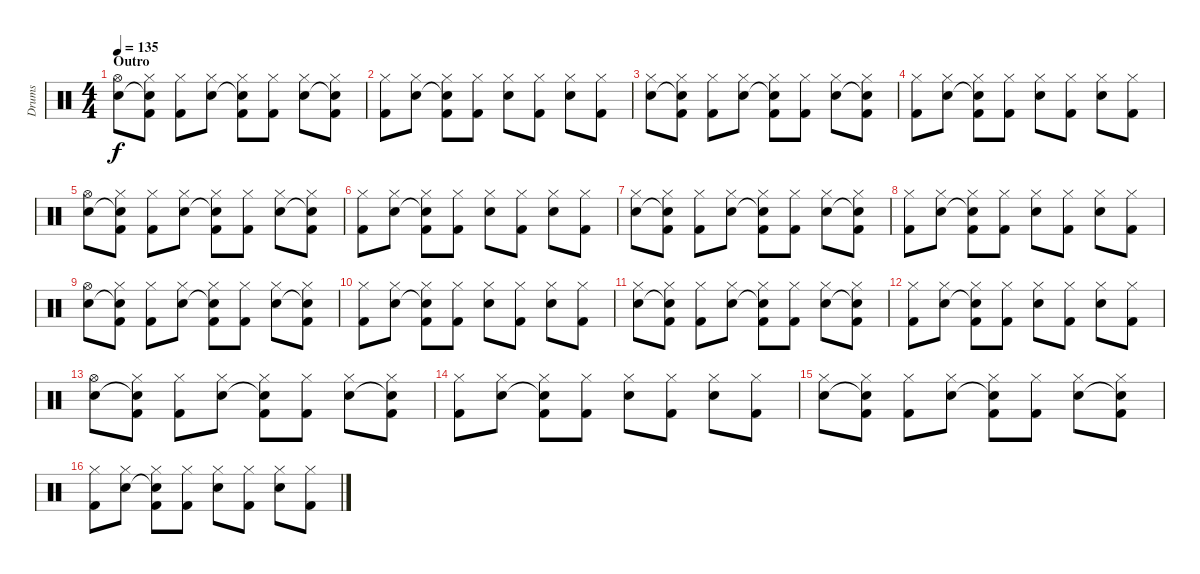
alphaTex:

\track ("Drums" "Drums") {instrument percussion}
\staff {score}
\articulation defaults
\ts (4 4)
\section ("" "Outro")
\tempo 135
\clef neutral
\ks c
("Hi-Hat (open)" "Snare (hit) 2").8{dy f} ("Hi-Hat (closed)" "Snare (hit) 2"{t} "Kick (hit) 2").8 ("Hi-Hat (closed)" "Kick (hit) 2").8 ("Hi-Hat (closed)" "Snare (hit) 2").8 ("Hi-Hat (closed)" "Snare (hit) 2"{t} "Kick (hit) 2").8 ("Hi-Hat (closed)" "Kick (hit) 2").8 ("Hi-Hat (closed)" "Snare (hit) 2").8 ("Hi-Hat (closed)" "Snare (hit) 2"{t} "Kick (hit) 2").8 |
("Hi-Hat (closed)" "Kick (hit) 2").8 ("Hi-Hat (closed)" "Snare (hit) 2").8 ("Hi-Hat (closed)" "Snare (hit) 2"{t} "Kick (hit) 2").8 ("Hi-Hat (closed)" "Kick (hit) 2").8 ("Hi-Hat (closed)" "Snare (hit) 2").8 ("Hi-Hat (closed)" "Kick (hit) 2").8 ("Hi-Hat (closed)" "Snare (hit) 2").8 ("Hi-Hat (closed)" "Kick (hit) 2").8 |
("Hi-Hat (closed)" "Snare (hit) 2").8 ("Hi-Hat (closed)" "Snare (hit) 2"{t} "Kick (hit) 2").8 ("Hi-Hat (closed)" "Kick (hit) 2").8 ("Hi-Hat (closed)" "Snare (hit) 2").8 ("Hi-Hat (closed)" "Snare (hit) 2"{t} "Kick (hit) 2").8 ("Hi-Hat (closed)" "Kick (hit) 2").8 ("Hi-Hat (closed)" "Snare (hit) 2").8 ("Hi-Hat (closed)" "Snare (hit) 2"{t} "Kick (hit) 2").8 |
("Hi-Hat (closed)" "Kick (hit) 2").8 ("Hi-Hat (closed)" "Snare (hit) 2").8 ("Hi-Hat (closed)" "Snare (hit) 2"{t} "Kick (hit) 2").8 ("Hi-Hat (closed)" "Kick (hit) 2").8 ("Hi-Hat (closed)" "Snare (hit) 2").8 ("Hi-Hat (closed)" "Kick (hit) 2").8 ("Hi-Hat (closed)" "Snare (hit) 2").8 ("Hi-Hat (closed)" "Kick (hit) 2").8 |
("Hi-Hat (open)" "Snare (hit) 2").8 ("Hi-Hat (closed)" "Snare (hit) 2"{t} "Kick (hit) 2").8 ("Hi-Hat (closed)" "Kick (hit) 2").8 ("Hi-Hat (closed)" "Snare (hit) 2").8 ("Hi-Hat (closed)" "Snare (hit) 2"{t} "Kick (hit) 2").8 ("Hi-Hat (closed)" "Kick (hit) 2").8 ("Hi-Hat (closed)" "Snare (hit) 2").8 ("Hi-Hat (closed)" "Snare (hit) 2"{t} "Kick (hit) 2").8 |
("Hi-Hat (closed)" "Kick (hit) 2").8 ("Hi-Hat (closed)" "Snare (hit) 2").8 ("Hi-Hat (closed)" "Snare (hit) 2"{t} "Kick (hit) 2").8 ("Hi-Hat (closed)" "Kick (hit) 2").8 ("Hi-Hat (closed)" "Snare (hit) 2").8 ("Hi-Hat (closed)" "Kick (hit) 2").8 ("Hi-Hat (closed)" "Snare (hit) 2").8 ("Hi-Hat (closed)" "Kick (hit) 2").8 |
("Hi-Hat (closed)" "Snare (hit) 2").8 ("Hi-Hat (closed)" "Snare (hit) 2"{t} "Kick (hit) 2").8 ("Hi-Hat (closed)" "Kick (hit) 2").8 ("Hi-Hat (closed)" "Snare (hit) 2").8 ("Hi-Hat (closed)" "Snare (hit) 2"{t} "Kick (hit) 2").8 ("Hi-Hat (closed)" "Kick (hit) 2").8 ("Hi-Hat (closed)" "Snare (hit) 2").8 ("Hi-Hat (closed)" "Snare (hit) 2"{t} "Kick (hit) 2").8 |
("Hi-Hat (closed)" "Kick (hit) 2").8 ("Hi-Hat (closed)" "Snare (hit) 2").8 ("Hi-Hat (closed)" "Snare (hit) 2"{t} "Kick (hit) 2").8 ("Hi-Hat (closed)" "Kick (hit) 2").8 ("Hi-Hat (closed)" "Snare (hit) 2").8 ("Hi-Hat (closed)" "Kick (hit) 2").8 ("Hi-Hat (closed)" "Snare (hit) 2").8 ("Hi-Hat (closed)" "Kick (hit) 2").8 |
("Hi-Hat (open)" "Snare (hit) 2").8 ("Hi-Hat (closed)" "Snare (hit) 2"{t} "Kick (hit) 2").8 ("Hi-Hat (closed)" "Kick (hit) 2").8 ("Hi-Hat (closed)" "Snare (hit) 2").8 ("Hi-Hat (closed)" "Snare (hit) 2"{t} "Kick (hit) 2").8 ("Hi-Hat (closed)" "Kick (hit) 2").8 ("Hi-Hat (closed)" "Snare (hit) 2").8 ("Hi-Hat (closed)" "Snare (hit) 2"{t} "Kick (hit) 2").8 |
("Hi-Hat (closed)" "Kick (hit) 2").8 ("Hi-Hat (closed)" "Snare (hit) 2").8 ("Hi-Hat (closed)" "Snare (hit) 2"{t} "Kick (hit) 2").8 ("Hi-Hat (closed)" "Kick (hit) 2").8 ("Hi-Hat (closed)" "Snare (hit) 2").8 ("Hi-Hat (closed)" "Kick (hit) 2").8 ("Hi-Hat (closed)" "Snare (hit) 2").8 ("Hi-Hat (closed)" "Kick (hit) 2").8 |
("Hi-Hat (closed)" "Snare (hit) 2").8 ("Hi-Hat (closed)" "Snare (hit) 2"{t} "Kick (hit) 2").8 ("Hi-Hat (closed)" "Kick (hit) 2").8 ("Hi-Hat (closed)" "Snare (hit) 2").8 ("Hi-Hat (closed)" "Snare (hit) 2"{t} "Kick (hit) 2").8 ("Hi-Hat (closed)" "Kick (hit) 2").8 ("Hi-Hat (closed)" "Snare (hit) 2").8 ("Hi-Hat (closed)" "Snare (hit) 2"{t} "Kick (hit) 2").8 |
("Hi-Hat (closed)" "Kick (hit) 2").8 ("Hi-Hat (closed)" "Snare (hit) 2").8 ("Hi-Hat (closed)" "Snare (hit) 2"{t} "Kick (hit) 2").8 ("Hi-Hat (closed)" "Kick (hit) 2").8 ("Hi-Hat (closed)" "Snare (hit) 2").8 ("Hi-Hat (closed)" "Kick (hit) 2").8 ("Hi-Hat (closed)" "Snare (hit) 2").8 ("Hi-Hat (closed)" "Kick (hit) 2").8 |
("Hi-Hat (open)" "Snare (hit) 2").8 ("Hi-Hat (closed)" "Snare (hit) 2"{t} "Kick (hit) 2").8 ("Hi-Hat (closed)" "Kick (hit) 2").8 ("Hi-Hat (closed)" "Snare (hit) 2").8 ("Hi-Hat (closed)" "Snare (hit) 2"{t} "Kick (hit) 2").8 ("Hi-Hat (closed)" "Kick (hit) 2").8 ("Hi-Hat (closed)" "Snare (hit) 2").8 ("Hi-Hat (closed)" "Snare (hit) 2"{t} "Kick (hit) 2").8 |
("Hi-Hat (closed)" "Kick (hit) 2").8 ("Hi-Hat (closed)" "Snare (hit) 2").8 ("Hi-Hat (closed)" "Snare (hit) 2"{t} "Kick (hit) 2").8 ("Hi-Hat (closed)" "Kick (hit) 2").8 ("Hi-Hat (closed)" "Snare (hit) 2").8 ("Hi-Hat (closed)" "Kick (hit) 2").8 ("Hi-Hat (closed)" "Snare (hit) 2").8 ("Hi-Hat (closed)" "Kick (hit) 2").8 |
("Hi-Hat (closed)" "Snare (hit) 2").8 ("Hi-Hat (closed)" "Snare (hit) 2"{t} "Kick (hit) 2").8 ("Hi-Hat (closed)" "Kick (hit) 2").8 ("Hi-Hat (closed)" "Snare (hit) 2").8 ("Hi-Hat (closed)" "Snare (hit) 2"{t} "Kick (hit) 2").8 ("Hi-Hat (closed)" "Kick (hit) 2").8 ("Hi-Hat (closed)" "Snare (hit) 2").8 ("Hi-Hat (closed)" "Snare (hit) 2"{t} "Kick (hit) 2").8 |
("Hi-Hat (closed)" "Kick (hit) 2").8 ("Hi-Hat (closed)" "Snare (hit) 2").8 ("Hi-Hat (closed)" "Snare (hit) 2"{t} "Kick (hit) 2").8 ("Hi-Hat (closed)" "Kick (hit) 2").8 ("Hi-Hat (closed)" "Snare (hit) 2").8 ("Hi-Hat (closed)" "Kick (hit) 2").8 ("Hi-Hat (closed)" "Snare (hit) 2").8 ("Hi-Hat (closed)" "Kick (hit) 2").8
